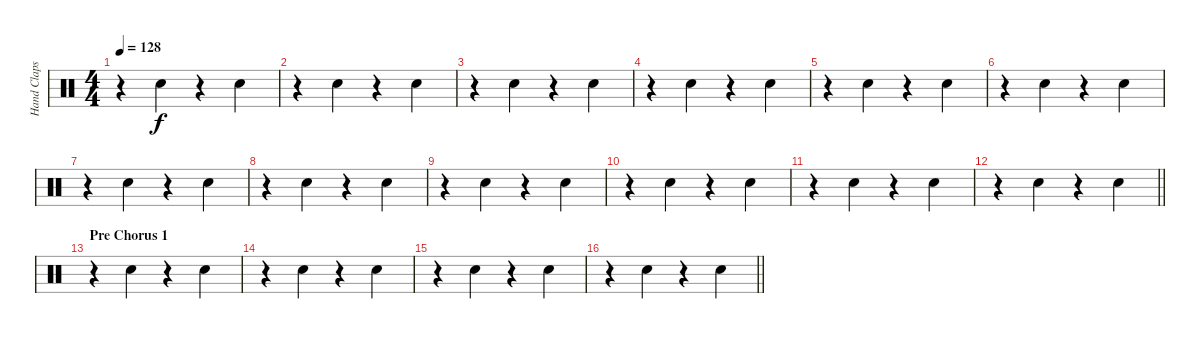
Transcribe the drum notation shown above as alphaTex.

\track ("Hand Claps" "Hand Claps") {instrument percussion}
\staff {score}
\articulation defaults
\ts (4 4)
\tempo 128
\clef neutral
\ks c
r.4{dy f} "Hand Clap (hit)".4 r.4 "Hand Clap (hit)".4 |
r.4 "Hand Clap (hit)".4 r.4 "Hand Clap (hit)".4 |
r.4 "Hand Clap (hit)".4 r.4 "Hand Clap (hit)".4 |
r.4 "Hand Clap (hit)".4 r.4 "Hand Clap (hit)".4 |
r.4 "Hand Clap (hit)".4 r.4 "Hand Clap (hit)".4 |
r.4 "Hand Clap (hit)".4 r.4 "Hand Clap (hit)".4 |
r.4 "Hand Clap (hit)".4 r.4 "Hand Clap (hit)".4 |
r.4 "Hand Clap (hit)".4 r.4 "Hand Clap (hit)".4 |
r.4 "Hand Clap (hit)".4 r.4 "Hand Clap (hit)".4 |
r.4 "Hand Clap (hit)".4 r.4 "Hand Clap (hit)".4 |
r.4 "Hand Clap (hit)".4 r.4 "Hand Clap (hit)".4 |
\barLineRight lightlight
r.4 "Hand Clap (hit)".4 r.4 "Hand Clap (hit)".4 |
\section ("" "Pre Chorus 1")
r.4 "Hand Clap (hit)".4 r.4 "Hand Clap (hit)".4 |
r.4 "Hand Clap (hit)".4 r.4 "Hand Clap (hit)".4 |
r.4 "Hand Clap (hit)".4 r.4 "Hand Clap (hit)".4 |
\barLineRight lightlight
r.4 "Hand Clap (hit)".4 r.4 "Hand Clap (hit)".4
